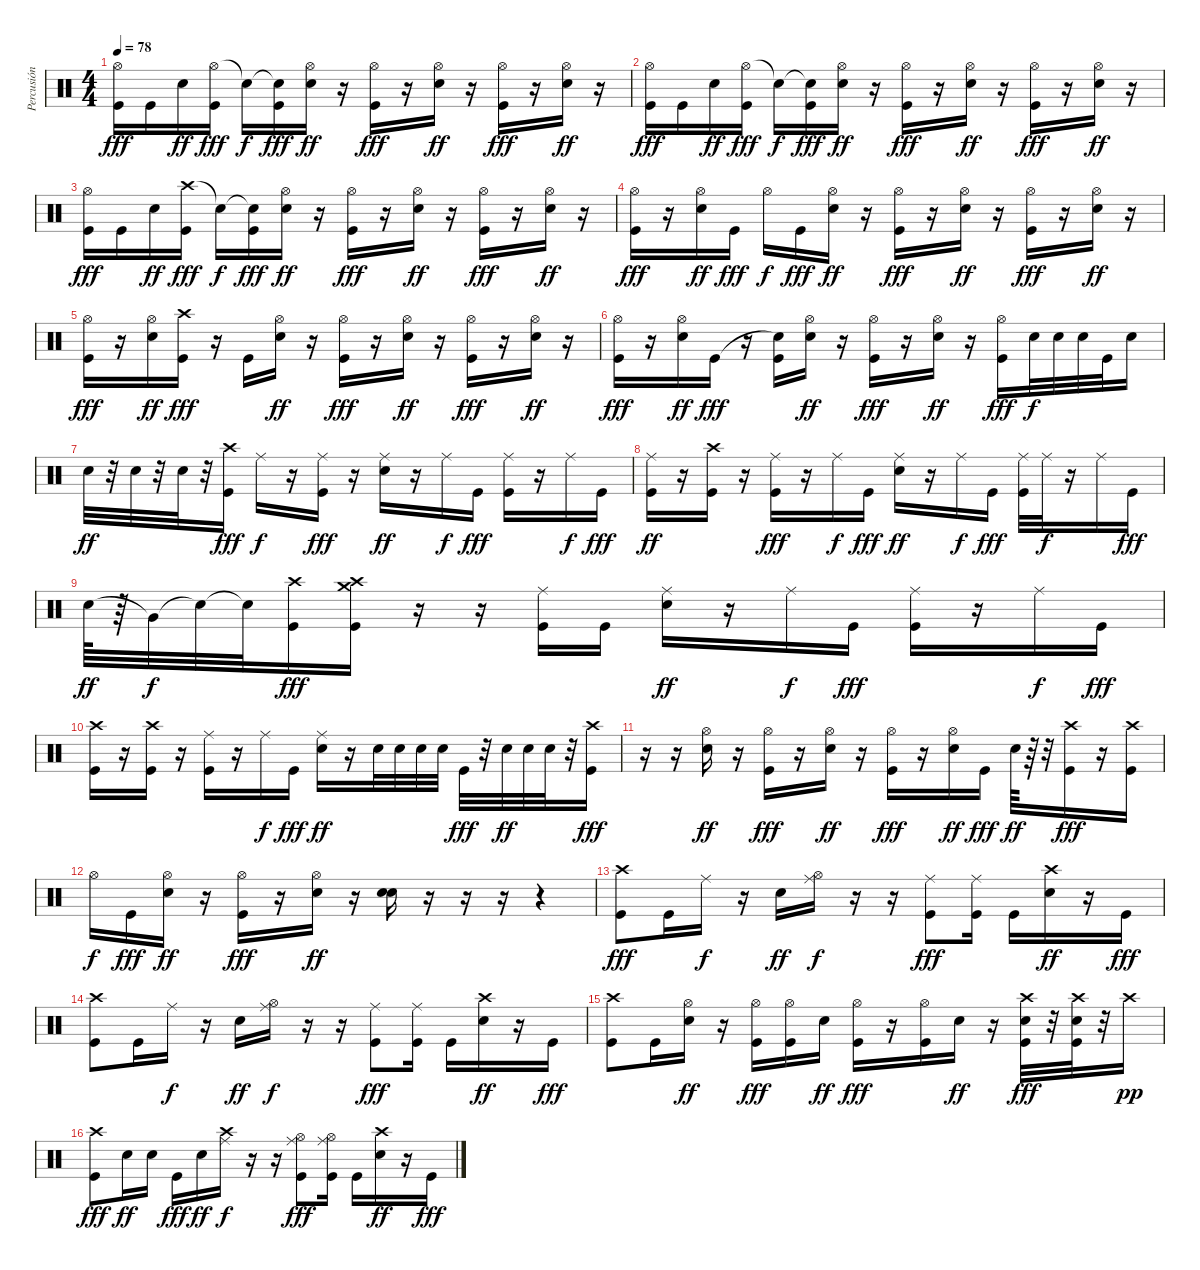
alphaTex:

\track ("Percusión" "Percusión") {instrument percussion}
\staff {score}
\articulation defaults
\ts (4 4)
\tempo 78
\clef neutral
\ks c
("Hi-Hat (open)" "Kick (hit)").16{dy fff} "Kick (hit)".16 "Snare (hit) 2".16{dy ff} ("Hi-Hat (open)" "Kick (hit)").16{dy fff} "Snare (hit)"{t}.16{dy f} ("Snare (hit)"{t} "Kick (hit)").16{dy fff} ("Hi-Hat (open)" "Snare (hit) 2").16{dy ff} r.16 ("Hi-Hat (open)" "Kick (hit)").16{dy fff} r.16 ("Hi-Hat (open)" "Snare (hit) 2").16{dy ff} r.16 ("Hi-Hat (open)" "Kick (hit)").16{dy fff} r.16 ("Hi-Hat (open)" "Snare (hit) 2").16{dy ff} r.16 |
("Hi-Hat (open)" "Kick (hit)").16{dy fff} "Kick (hit)".16 "Snare (hit) 2".16{dy ff} ("Hi-Hat (open)" "Kick (hit)").16{dy fff} "Snare (hit)"{t}.16{dy f} ("Snare (hit)"{t} "Kick (hit)").16{dy fff} ("Hi-Hat (open)" "Snare (hit) 2").16{dy ff} r.16 ("Hi-Hat (open)" "Kick (hit)").16{dy fff} r.16 ("Hi-Hat (open)" "Snare (hit) 2").16{dy ff} r.16 ("Hi-Hat (open)" "Kick (hit)").16{dy fff} r.16 ("Hi-Hat (open)" "Snare (hit) 2").16{dy ff} r.16 |
("Hi-Hat (open)" "Kick (hit)").16{dy fff} "Kick (hit)".16 "Snare (hit) 2".16{dy ff} ("Crash high (hit)" "Kick (hit)").16{dy fff} "Snare (hit)"{t}.16{dy f} ("Snare (hit)"{t} "Kick (hit)").16{dy fff} ("Hi-Hat (open)" "Snare (hit) 2").16{dy ff} r.16 ("Hi-Hat (open)" "Kick (hit)").16{dy fff} r.16 ("Hi-Hat (open)" "Snare (hit) 2").16{dy ff} r.16 ("Hi-Hat (open)" "Kick (hit)").16{dy fff} r.16 ("Hi-Hat (open)" "Snare (hit) 2").16{dy ff} r.16 |
("Hi-Hat (open)" "Kick (hit)").16{dy fff} r.16 ("Hi-Hat (open)" "Snare (hit) 2").16{dy ff} "Kick (hit)".16{dy fff} "Hi-Hat (open)".16{dy f} "Kick (hit)".16{dy fff} ("Hi-Hat (open)" "Snare (hit) 2").16{dy ff} r.16 ("Hi-Hat (open)" "Kick (hit)").16{dy fff} r.16 ("Hi-Hat (open)" "Snare (hit) 2").16{dy ff} r.16 ("Hi-Hat (open)" "Kick (hit)").16{dy fff} r.16 ("Hi-Hat (open)" "Snare (hit) 2").16{dy ff} r.16 |
("Hi-Hat (open)" "Kick (hit)").16{dy fff} r.16 ("Hi-Hat (open)" "Snare (hit) 2").16{dy ff} ("Crash high (hit)" "Kick (hit)").16{dy fff} r.16 "Kick (hit)".16 ("Hi-Hat (open)" "Snare (hit) 2").16{dy ff} r.16 ("Hi-Hat (open)" "Kick (hit)").16{dy fff} r.16 ("Hi-Hat (open)" "Snare (hit) 2").16{dy ff} r.16 ("Hi-Hat (open)" "Kick (hit)").16{dy fff} r.16 ("Hi-Hat (open)" "Snare (hit) 2").16{dy ff} r.16 |
("Hi-Hat (open)" "Kick (hit)").16{dy fff} r.16 ("Hi-Hat (open)" "Snare (hit) 2").16{dy ff} "Kick (hit)".16{dy fff} r.16 ("Snare (hit)"{t} "Kick (hit)").16 ("Hi-Hat (open)" "Snare (hit) 2").16{dy ff} r.16 ("Hi-Hat (open)" "Kick (hit)").16{dy fff} r.16 ("Hi-Hat (open)" "Snare (hit) 2").16{dy ff} r.16 ("Hi-Hat (open)" "Kick (hit)").16{dy fff} "Snare (hit) 2".32{dy f} "Snare (hit) 2".32 "Snare (hit) 2".32 "Kick (hit)".32 "Snare (hit) 2".16 |
"Snare (hit) 2".32{dy ff} r.32 "Snare (hit) 2".32 r.32 "Snare (hit) 2".32 r.32 ("Crash high (hit)" "Kick (hit)").16{dy fff} "Ride (middle)".16{dy f} r.16 ("Ride (middle)" "Kick (hit)").16{dy fff} r.16 ("Ride (middle)" "Snare (hit) 2").16{dy ff} r.16 "Ride (middle)".16{dy f} "Kick (hit)".16{dy fff} ("Ride (middle)" "Kick (hit)").16 r.16 "Ride (middle)".16{dy f} "Kick (hit)".16{dy fff} |
("Ride (middle)" "Kick (hit)").16{dy ff} r.16 ("Crash high (hit)" "Kick (hit)").16 r.16 ("Ride (middle)" "Kick (hit)").16{dy fff} r.16 "Ride (middle)".16{dy f} "Kick (hit)".16{dy fff} ("Ride (middle)" "Snare (hit) 2").16{dy ff} r.16 "Ride (middle)".16{dy f} "Kick (hit)".16{dy fff} ("Ride (middle)" "Kick (hit)").32 "Ride (middle)".32{dy f} r.16 "Ride (middle)".16 "Kick (hit)".16{dy fff} |
"Snare (hit) 2".64{dy ff} r.64 "Very Low Tom (hit)"{t}.32{dy f} "Snare (hit)"{t}.32 "Snare (hit)"{t}.32 ("Crash high (hit)" "Kick (hit)").16{dy fff} ("Crash medium (hit)" "Crash high (hit)" "Kick (hit)").16 r.16 r.16 ("Ride (middle)" "Kick (hit)").16 "Kick (hit)".16 ("Ride (middle)" "Snare (hit) 2").16{dy ff} r.16 "Ride (middle)".16{dy f} "Kick (hit)".16{dy fff} ("Ride (middle)" "Kick (hit)").16 r.16 "Ride (middle)".16{dy f} "Kick (hit)".16{dy fff} |
("Crash high (hit)" "Kick (hit)").16 r.16 ("Crash high (hit)" "Kick (hit)").16 r.16 ("Ride (middle)" "Kick (hit)").16 r.16 "Ride (middle)".16{dy f} "Kick (hit)".16{dy fff} ("Ride (middle)" "Snare (hit) 2").16{dy ff} r.16 "Snare (hit) 2".32 "Snare (hit) 2".32 "Snare (hit) 2".32 "Snare (hit) 2".32 "Kick (hit)".32{dy fff} r.32 "Snare (hit) 2".32{dy ff} "Snare (hit) 2".32 "Snare (hit) 2".32 r.32 ("Crash high (hit)" "Kick (hit)").16{dy fff} |
r.16 r.16 ("Hi-Hat (open)" "Snare (hit) 2").16{dy ff} r.16 ("Hi-Hat (open)" "Kick (hit)").16{dy fff} r.16 ("Hi-Hat (open)" "Snare (hit) 2").16{dy ff} r.16 ("Hi-Hat (open)" "Kick (hit)").16{dy fff} r.16 ("Hi-Hat (open)" "Snare (hit) 2").16{dy ff} "Kick (hit)".16{dy fff} "Snare (hit) 2".64{dy ff} r.64 r.32 ("Crash high (hit)" "Kick (hit)").16{dy fff} r.16 ("Crash high (hit)" "Kick (hit)").16 |
"Hi-Hat (open)".16{dy f} "Kick (hit)".16{dy fff} ("Hi-Hat (open)" "Snare (hit) 2").16{dy ff} r.16 ("Hi-Hat (open)" "Kick (hit)").16{dy fff} r.16 ("Hi-Hat (open)" "Snare (hit) 2").16{dy ff} r.16 ("Snare (hit) 2" "Snare (hit) 2").16 r.16 r.16 r.16 r.4 |
("Crash high (hit)" "Kick (hit)").8{dy fff} "Kick (hit)".16 "Ride (middle)".16{dy f} r.16 "Snare (hit) 2".16{dy ff} ("Ride (middle)" "Hi-Hat (open)").16{dy f} r.16 r.16 ("Ride (middle)" "Kick (hit)").8{dy fff} ("Ride (middle)" "Kick (hit)").16 "Kick (hit)".16 ("Crash high (hit)" "Snare (hit) 2").16{dy ff} r.16 "Kick (hit)".16{dy fff} |
("Crash high (hit)" "Kick (hit)").8 "Kick (hit)".16 "Ride (middle)".16{dy f} r.16 "Snare (hit) 2".16{dy ff} ("Ride (middle)" "Hi-Hat (open)").16{dy f} r.16 r.16 ("Ride (middle)" "Kick (hit)").8{dy fff} ("Ride (middle)" "Kick (hit)").16 "Kick (hit)".16 ("Crash high (hit)" "Snare (hit) 2").16{dy ff} r.16 "Kick (hit)".16{dy fff} |
("Crash high (hit)" "Kick (hit)").8 "Kick (hit)".16 ("Hi-Hat (open)" "Snare (hit) 2").16{dy ff} r.16 ("Hi-Hat (open)" "Kick (hit)").16{dy fff} ("Hi-Hat (open)" "Kick (hit)").16 "Snare (hit) 2".16{dy ff} ("Hi-Hat (open)" "Kick (hit)").16{dy fff} r.16 ("Hi-Hat (open)" "Kick (hit)").16 "Snare (hit) 2".16{dy ff} r.16 ("Crash high (hit)" "Snare (hit) 2" "Kick (hit)").32{dy fff} r.32 ("Crash high (hit)" "Snare (hit) 2" "Kick (hit)").32 r.32 "Crash high (hit)".16{dy pp} |
("Crash high (hit)" "Kick (hit)").8{dy fff} "Snare (hit) 2".16{dy ff} "Snare (hit) 2".16 "Kick (hit)".16{dy fff} "Snare (hit) 2".16{dy ff} ("Ride (middle)" "Crash high (hit)").16{dy f} r.16 r.16 ("Ride (middle)" "Hi-Hat (open)" "Kick (hit)").8{dy fff} ("Ride (middle)" "Hi-Hat (open)" "Kick (hit)").16 "Kick (hit)".16 ("Crash high (hit)" "Snare (hit) 2").16{dy ff} r.16 "Kick (hit)".16{dy fff}
